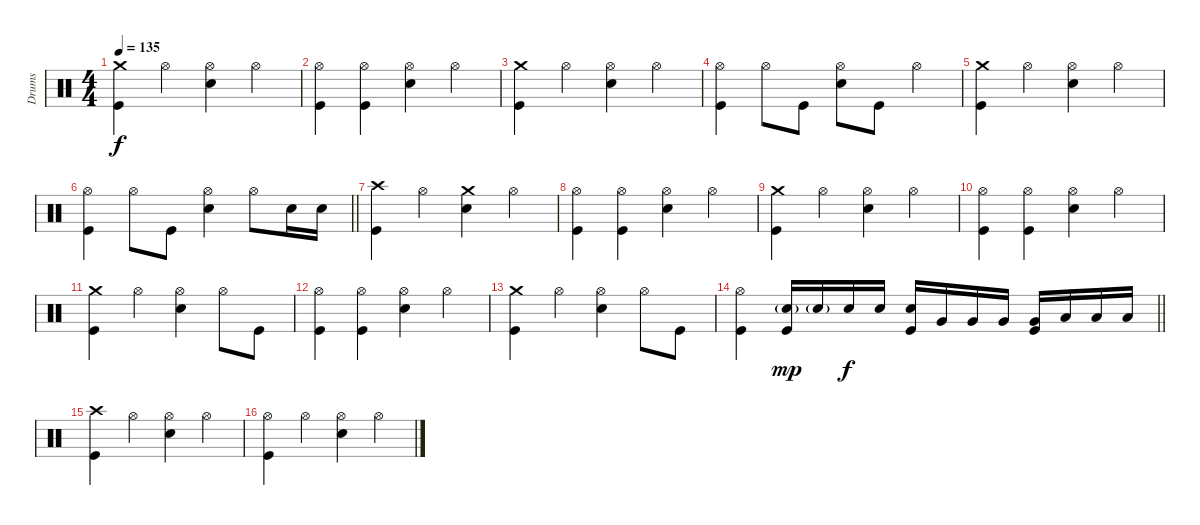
\track ("Drums" "Drums") {instrument percussion}
\staff {score}
\articulation defaults
\ts (4 4)
\tempo 135
\clef neutral
\ks c
("Crash medium (hit)" "Kick (hit)").4{dy f} "Hi-Hat (open)".4 ("Hi-Hat (open)" "Electric Snare (hit)").4 "Hi-Hat (open)".4 |
("Hi-Hat (open)" "Kick (hit)").4 ("Hi-Hat (open)" "Kick (hit)").4 ("Hi-Hat (open)" "Electric Snare (hit)").4 "Hi-Hat (open)".4 |
("Crash medium (hit)" "Kick (hit)").4 "Hi-Hat (open)".4 ("Hi-Hat (open)" "Electric Snare (hit)").4 "Hi-Hat (open)".4 |
("Hi-Hat (open)" "Kick (hit)").4 "Hi-Hat (open)".8 "Kick (hit)".8 ("Hi-Hat (open)" "Electric Snare (hit)").8 "Kick (hit)".8 "Hi-Hat (open)".4 |
("Crash medium (hit)" "Kick (hit)").4 "Hi-Hat (open)".4 ("Hi-Hat (open)" "Electric Snare (hit)").4 "Hi-Hat (open)".4 |
\barLineRight lightlight
("Hi-Hat (open)" "Kick (hit)").4 "Hi-Hat (open)".8 "Kick (hit)".8 ("Hi-Hat (open)" "Electric Snare (hit)").4 "Hi-Hat (open)".8 "Electric Snare (hit)".16 "Electric Snare (hit)".16 |
\section ("" "")
("Crash high (hit)" "Kick (hit)").4 "Hi-Hat (open)".4 ("Crash medium (hit)" "Electric Snare (hit)").4 "Hi-Hat (open)".4 |
("Hi-Hat (open)" "Kick (hit)").4 ("Hi-Hat (open)" "Kick (hit)").4 ("Hi-Hat (open)" "Electric Snare (hit)").4 "Hi-Hat (open)".4 |
("Crash medium (hit)" "Kick (hit)").4 "Hi-Hat (open)".4 ("Hi-Hat (open)" "Electric Snare (hit)").4 "Hi-Hat (open)".4 |
("Hi-Hat (open)" "Kick (hit)").4 ("Hi-Hat (open)" "Kick (hit)").4 ("Hi-Hat (open)" "Electric Snare (hit)").4 "Hi-Hat (open)".4 |
("Crash medium (hit)" "Kick (hit)").4 "Hi-Hat (open)".4 ("Hi-Hat (open)" "Electric Snare (hit)").4 "Hi-Hat (open)".8 "Kick (hit)".8 |
("Hi-Hat (open)" "Kick (hit)").4 ("Hi-Hat (open)" "Kick (hit)").4 ("Hi-Hat (open)" "Electric Snare (hit)").4 "Hi-Hat (open)".4 |
("Crash medium (hit)" "Kick (hit)").4 "Hi-Hat (open)".4 ("Hi-Hat (open)" "Electric Snare (hit)").4 "Hi-Hat (open)".8 "Kick (hit)".8 |
\barLineRight lightlight
("Hi-Hat (open)" "Kick (hit)").4 ("Electric Snare (hit)"{g} "Kick (hit)").16{dy mp} "Electric Snare (hit)"{g}.16 "Electric Snare (hit)".16{dy f} "Electric Snare (hit)".16 ("Electric Snare (hit)" "Kick (hit)").16 "Very Low Tom (hit)".16 "Very Low Tom (hit)".16 "Very Low Tom (hit)".16 ("Very Low Tom (hit)" "Kick (hit)").16 "Low Floor Tom (hit)".16 "Low Floor Tom (hit)".16 "Low Floor Tom (hit)".16 |
\section ("" "")
("Crash high (hit)" "Kick (hit)").4 "Hi-Hat (open)".4 ("Hi-Hat (open)" "Electric Snare (hit)").4 "Hi-Hat (open)".4 |
("Hi-Hat (open)" "Kick (hit)").4 "Hi-Hat (open)".4 ("Hi-Hat (open)" "Electric Snare (hit)").4 "Hi-Hat (open)".4
